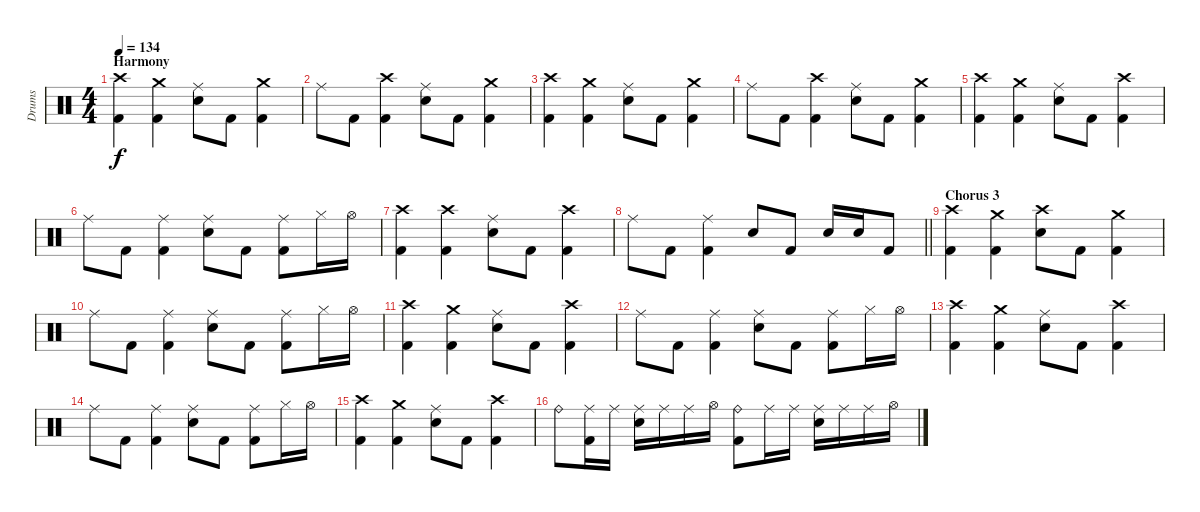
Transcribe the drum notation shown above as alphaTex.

\track ("Drums" "Drums") {instrument percussion}
\staff {score}
\articulation defaults
\ts (4 4)
\section ("" "Harmony")
\tempo 134
\clef neutral
\ks c
("Crash high (hit)" "Kick (hit) 2").4{dy f} ("Crash medium (hit)" "Kick (hit) 2").4 ("Ride (middle)" "Snare (hit) 2").8 "Kick (hit) 2".8 ("Crash medium (hit)" "Kick (hit) 2").4 |
"Ride (middle)".8 "Kick (hit) 2".8 ("Crash high (hit)" "Kick (hit) 2").4 ("Ride (middle)" "Snare (hit) 2").8 "Kick (hit) 2".8 ("Crash medium (hit)" "Kick (hit) 2").4 |
("Crash high (hit)" "Kick (hit) 2").4 ("Crash medium (hit)" "Kick (hit) 2").4 ("Ride (middle)" "Snare (hit) 2").8 "Kick (hit) 2".8 ("Crash medium (hit)" "Kick (hit) 2").4 |
"Ride (middle)".8 "Kick (hit) 2".8 ("Crash high (hit)" "Kick (hit) 2").4 ("Ride (middle)" "Snare (hit) 2").8 "Kick (hit) 2".8 ("Crash medium (hit)" "Kick (hit) 2").4 |
("Crash high (hit)" "Kick (hit) 2").4 ("Crash medium (hit)" "Kick (hit) 2").4 ("Ride (middle)" "Snare (hit) 2").8 "Kick (hit) 2".8 ("Crash high (hit)" "Kick (hit) 2").4 |
"Ride (middle)".8 "Kick (hit) 2".8 ("Ride (middle)" "Kick (hit) 2").4 ("Ride (middle)" "Snare (hit) 2").8 "Kick (hit) 2".8 ("Ride (middle)" "Kick (hit) 2").8 "Hi-Hat (closed)".16 "Hi-Hat (open)".16 |
("Crash high (hit)" "Kick (hit) 2").4 ("Crash high (hit)" "Kick (hit) 2").4 ("Ride (middle)" "Snare (hit) 2").8 "Kick (hit) 2".8 ("Crash high (hit)" "Kick (hit) 2").4 |
\barLineRight lightlight "Ride (middle)".8 "Kick (hit) 2".8
("Ride (middle)" "Kick (hit) 2").4 "Snare (hit) 2".8 "Kick (hit) 2".8 "Snare (hit) 2".16 "Snare (hit) 2".16 "Kick (hit) 2".8 |
\section ("" "Chorus 3")
("Crash high (hit)" "Kick (hit) 2").4 ("Crash medium (hit)" "Kick (hit) 2").4 ("Crash high (hit)" "Snare (hit) 2").8 "Kick (hit) 2".8 ("Crash medium (hit)" "Kick (hit) 2").4 |
"Ride (middle)".8 "Kick (hit) 2".8 ("Ride (middle)" "Kick (hit) 2").4 ("Ride (middle)" "Snare (hit) 2").8 "Kick (hit) 2".8 ("Ride (middle)" "Kick (hit) 2").8 "Hi-Hat (closed)".16 "Hi-Hat (open)".16 |
("Crash high (hit)" "Kick (hit) 2").4 ("Crash medium (hit)" "Kick (hit) 2").4 ("Ride (middle)" "Snare (hit) 2").8 "Kick (hit) 2".8 ("Crash high (hit)" "Kick (hit) 2").4 |
"Ride (middle)".8 "Kick (hit) 2".8 ("Ride (middle)" "Kick (hit) 2").4 ("Ride (middle)" "Snare (hit) 2").8 "Kick (hit) 2".8 ("Ride (middle)" "Kick (hit) 2").8 "Hi-Hat (closed)".16 "Hi-Hat (open)".16 |
("Crash high (hit)" "Kick (hit) 2").4 ("Crash medium (hit)" "Kick (hit) 2").4 ("Ride (middle)" "Snare (hit) 2").8 "Kick (hit) 2".8 ("Crash high (hit)" "Kick (hit) 2").4 |
"Ride (middle)".8 "Kick (hit) 2".8 ("Ride (middle)" "Kick (hit) 2").4 ("Ride (middle)" "Snare (hit) 2").8 "Kick (hit) 2".8 ("Ride (middle)" "Kick (hit) 2").8 "Hi-Hat (closed)".16 "Hi-Hat (open)".16 |
("Crash high (hit)" "Kick (hit) 2").4 ("Crash medium (hit)" "Kick (hit) 2").4 ("Ride (middle)" "Snare (hit) 2").8 "Kick (hit) 2".8 ("Crash high (hit)" "Kick (hit) 2").4 |
"Ride (bell)".8 ("Ride (middle)" "Kick (hit) 2").16 "Ride (middle)".16 ("Ride (middle)" "Snare (hit) 2").16 "Ride (middle)".16 "Ride (middle)".16 "Hi-Hat (open)".16 ("Ride (bell)" "Kick (hit) 2").8 "Ride (middle)".16 "Ride (middle)".16 ("Ride (middle)" "Snare (hit) 2").16 "Ride (middle)".16 "Ride (middle)".16 "Hi-Hat (open)".16
